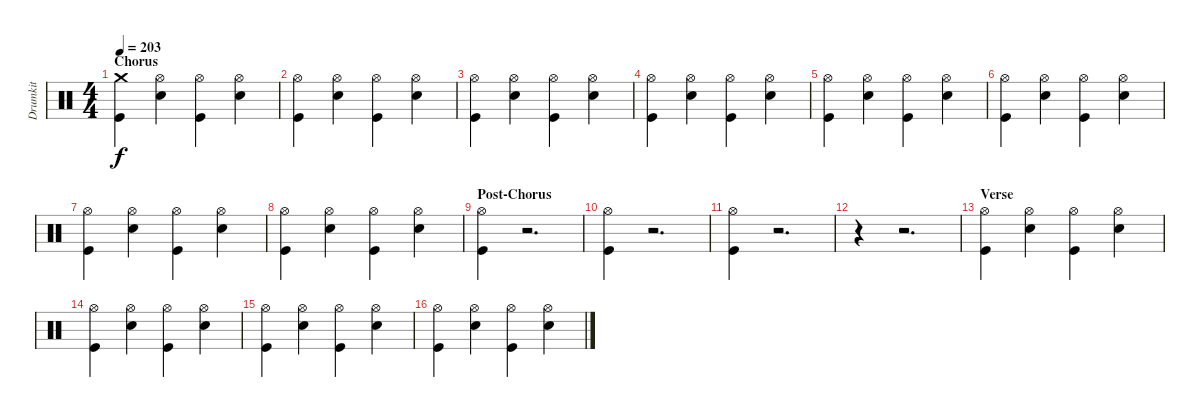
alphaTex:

\track ("Drumkit" "Drumkit") {instrument percussion}
\staff {score}
\articulation defaults
\ts (4 4)
\section ("" "Chorus")
\tempo 203
\clef neutral
\ks c
("Kick (hit)" "Crash medium (hit)").4{dy f} ("Snare (hit) 2" "Hi-Hat (open)").4 ("Kick (hit)" "Hi-Hat (open)").4 ("Snare (hit) 2" "Hi-Hat (open)").4 |
("Kick (hit)" "Hi-Hat (open)").4 ("Snare (hit) 2" "Hi-Hat (open)").4 ("Kick (hit)" "Hi-Hat (open)").4 ("Snare (hit) 2" "Hi-Hat (open)").4 |
("Kick (hit)" "Hi-Hat (open)").4 ("Snare (hit) 2" "Hi-Hat (open)").4 ("Kick (hit)" "Hi-Hat (open)").4 ("Snare (hit) 2" "Hi-Hat (open)").4 |
("Kick (hit)" "Hi-Hat (open)").4 ("Snare (hit) 2" "Hi-Hat (open)").4 ("Kick (hit)" "Hi-Hat (open)").4 ("Snare (hit) 2" "Hi-Hat (open)").4 |
("Kick (hit)" "Hi-Hat (open)").4 ("Snare (hit) 2" "Hi-Hat (open)").4 ("Kick (hit)" "Hi-Hat (open)").4 ("Snare (hit) 2" "Hi-Hat (open)").4 |
("Kick (hit)" "Hi-Hat (open)").4 ("Snare (hit) 2" "Hi-Hat (open)").4 ("Kick (hit)" "Hi-Hat (open)").4 ("Snare (hit) 2" "Hi-Hat (open)").4 |
("Kick (hit)" "Hi-Hat (open)").4 ("Snare (hit) 2" "Hi-Hat (open)").4 ("Kick (hit)" "Hi-Hat (open)").4 ("Snare (hit) 2" "Hi-Hat (open)").4 |
("Kick (hit)" "Hi-Hat (open)").4 ("Snare (hit) 2" "Hi-Hat (open)").4 ("Kick (hit)" "Hi-Hat (open)").4 ("Snare (hit) 2" "Hi-Hat (open)").4 |
\section ("" "Post-Chorus")
("Kick (hit)" "Hi-Hat (open)").4 r.2{d} |
("Kick (hit)" "Hi-Hat (open)").4 r.2{d} |
("Kick (hit)" "Hi-Hat (open)").4 r.2{d} |
r.4 r.2{d} |
\section ("" "Verse")
("Kick (hit)" "Hi-Hat (open)").4 ("Snare (hit) 2" "Hi-Hat (open)").4 ("Kick (hit)" "Hi-Hat (open)").4 ("Snare (hit) 2" "Hi-Hat (open)").4 |
("Kick (hit)" "Hi-Hat (open)").4 ("Snare (hit) 2" "Hi-Hat (open)").4 ("Kick (hit)" "Hi-Hat (open)").4 ("Snare (hit) 2" "Hi-Hat (open)").4 |
("Kick (hit)" "Hi-Hat (open)").4 ("Snare (hit) 2" "Hi-Hat (open)").4 ("Kick (hit)" "Hi-Hat (open)").4 ("Snare (hit) 2" "Hi-Hat (open)").4 |
("Kick (hit)" "Hi-Hat (open)").4 ("Snare (hit) 2" "Hi-Hat (open)").4 ("Kick (hit)" "Hi-Hat (open)").4 ("Snare (hit) 2" "Hi-Hat (open)").4
